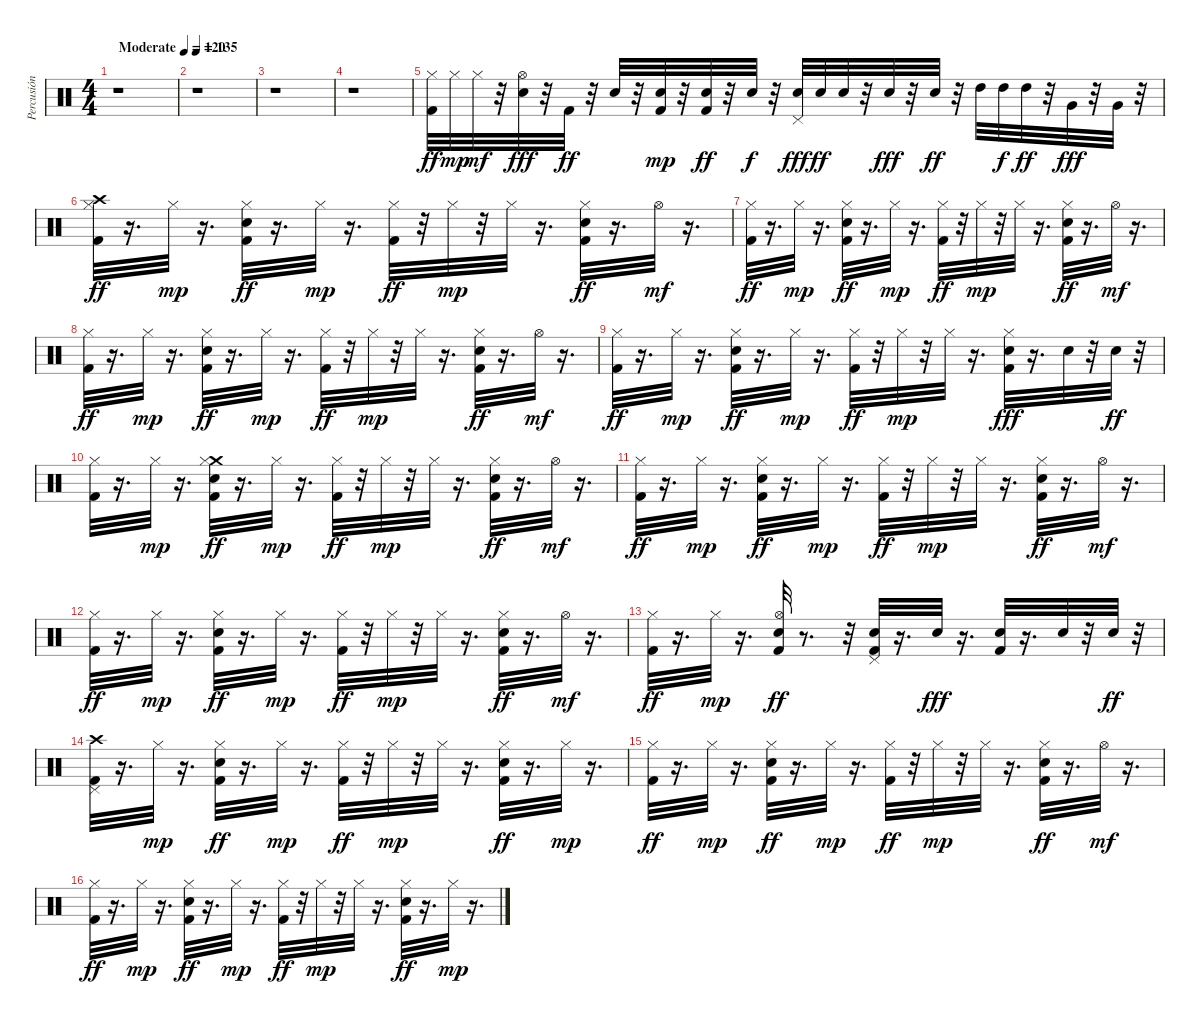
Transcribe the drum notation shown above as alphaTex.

\track ("Percusión" "Percusión") {instrument percussion}
\staff {score}
\articulation defaults
\ts (4 4)
\tempo (120 "Moderate")
\clef neutral
\ks c
r.1{dy ff} |
\tempo 135
r.1 |
r.1 |
r.1 |
("Hi-Hat (closed)" "Kick (hit) 2").32 "Hi-Hat (closed)".32{dy mp} "Hi-Hat (closed)".32{dy mf} r.32 ("Hi-Hat (open)" "Electric Snare (hit)").32{dy fff} r.32 "Kick (hit) 2".32{dy ff} r.32 "Electric Snare (hit)".32 r.32 ("Kick (hit) 2" "Electric Snare (hit)").32{dy mp} r.32 ("Kick (hit) 2" "Electric Snare (hit)").32{dy ff} r.32 "Electric Snare (hit)".32{dy f} r.32 ("Pedal Hi-Hat (hit)" "Electric Snare (hit)").32{dy fff} "Electric Snare (hit)".32{dy ff} "Electric Snare (hit)".32 r.32 "Electric Snare (hit)".32{dy fff} r.32 "Electric Snare (hit)".32{dy ff} r.32 "High Tom (hit)".32 "High Tom (hit)".32{dy f} "High Tom (hit)".32{dy ff} r.32 "Very Low Tom (hit)".32{dy fff} r.32 "Very Low Tom (hit)".32 r.32 |
("Crash high (hit)" "Hi-Hat (closed)" "Kick (hit) 2").32{dy ff} r.16{d} "Hi-Hat (closed)".32{dy mp} r.16{d} ("Hi-Hat (closed)" "Electric Snare (hit)" "Kick (hit) 2").32{dy ff} r.16{d} "Hi-Hat (closed)".32{dy mp} r.16{d} ("Hi-Hat (closed)" "Kick (hit) 2").32{dy ff} r.32 "Hi-Hat (closed)".32{dy mp} r.32 "Hi-Hat (closed)".32 r.16{d} ("Hi-Hat (closed)" "Electric Snare (hit)" "Kick (hit) 2").32{dy ff} r.16{d} "Hi-Hat (open)".32{dy mf} r.16{d} |
("Hi-Hat (closed)" "Kick (hit) 2").32{dy ff} r.16{d} "Hi-Hat (closed)".32{dy mp} r.16{d} ("Hi-Hat (closed)" "Electric Snare (hit)" "Kick (hit) 2").32{dy ff} r.16{d} "Hi-Hat (closed)".32{dy mp} r.16{d} ("Hi-Hat (closed)" "Kick (hit) 2").32{dy ff} r.32 "Hi-Hat (closed)".32{dy mp} r.32 "Hi-Hat (closed)".32 r.16{d} ("Hi-Hat (closed)" "Electric Snare (hit)" "Kick (hit) 2").32{dy ff} r.16{d} "Hi-Hat (open)".32{dy mf} r.16{d} |
("Hi-Hat (closed)" "Kick (hit) 2").32{dy ff} r.16{d} "Hi-Hat (closed)".32{dy mp} r.16{d} ("Hi-Hat (closed)" "Electric Snare (hit)" "Kick (hit) 2").32{dy ff} r.16{d} "Hi-Hat (closed)".32{dy mp} r.16{d} ("Hi-Hat (closed)" "Kick (hit) 2").32{dy ff} r.32 "Hi-Hat (closed)".32{dy mp} r.32 "Hi-Hat (closed)".32 r.16{d} ("Hi-Hat (closed)" "Electric Snare (hit)" "Kick (hit) 2").32{dy ff} r.16{d} "Hi-Hat (open)".32{dy mf} r.16{d} |
("Hi-Hat (closed)" "Kick (hit) 2").32{dy ff} r.16{d} "Hi-Hat (closed)".32{dy mp} r.16{d} ("Hi-Hat (closed)" "Electric Snare (hit)" "Kick (hit) 2").32{dy ff} r.16{d} "Hi-Hat (closed)".32{dy mp} r.16{d} ("Hi-Hat (closed)" "Kick (hit) 2").32{dy ff} r.32 "Hi-Hat (closed)".32{dy mp} r.32 "Hi-Hat (closed)".32 r.16{d} ("Hi-Hat (closed)" "Electric Snare (hit)" "Kick (hit) 2").32{dy fff} r.16{d} "Electric Snare (hit)".32 r.32 "Electric Snare (hit)".32{dy ff} r.32 |
("Hi-Hat (closed)" "Kick (hit) 2").32 r.16{d} "Hi-Hat (closed)".32{dy mp} r.16{d} ("Crash medium (hit)" "Hi-Hat (closed)" "Electric Snare (hit)" "Kick (hit) 2").32{dy ff} r.16{d} "Hi-Hat (closed)".32{dy mp} r.16{d} ("Hi-Hat (closed)" "Kick (hit) 2").32{dy ff} r.32 "Hi-Hat (closed)".32{dy mp} r.32 "Hi-Hat (closed)".32 r.16{d} ("Hi-Hat (closed)" "Electric Snare (hit)" "Kick (hit) 2").32{dy ff} r.16{d} "Hi-Hat (open)".32{dy mf} r.16{d} |
("Hi-Hat (closed)" "Kick (hit) 2").32{dy ff} r.16{d} "Hi-Hat (closed)".32{dy mp} r.16{d} ("Hi-Hat (closed)" "Electric Snare (hit)" "Kick (hit) 2").32{dy ff} r.16{d} "Hi-Hat (closed)".32{dy mp} r.16{d} ("Hi-Hat (closed)" "Kick (hit) 2").32{dy ff} r.32 "Hi-Hat (closed)".32{dy mp} r.32 "Hi-Hat (closed)".32 r.16{d} ("Hi-Hat (closed)" "Electric Snare (hit)" "Kick (hit) 2").32{dy ff} r.16{d} "Hi-Hat (open)".32{dy mf} r.16{d} |
("Hi-Hat (closed)" "Kick (hit) 2").32{dy ff} r.16{d} "Hi-Hat (closed)".32{dy mp} r.16{d} ("Hi-Hat (closed)" "Electric Snare (hit)" "Kick (hit) 2").32{dy ff} r.16{d} "Hi-Hat (closed)".32{dy mp} r.16{d} ("Hi-Hat (closed)" "Kick (hit) 2").32{dy ff} r.32 "Hi-Hat (closed)".32{dy mp} r.32 "Hi-Hat (closed)".32 r.16{d} ("Hi-Hat (closed)" "Electric Snare (hit)" "Kick (hit) 2").32{dy ff} r.16{d} "Hi-Hat (open)".32{dy mf} r.16{d} |
("Hi-Hat (closed)" "Kick (hit) 2").32{dy ff} r.16{d} "Hi-Hat (closed)".32{dy mp} r.16{d} ("Hi-Hat (open)" "Electric Snare (hit)" "Kick (hit) 2").32{dy ff} r.8{d} r.32 ("Pedal Hi-Hat (hit)" "Electric Snare (hit)" "Kick (hit) 2").32 r.16{d} "Electric Snare (hit)".32{dy fff} r.16{d} ("Electric Snare (hit)" "Kick (hit) 2").32 r.16{d} "Electric Snare (hit)".32 r.32 "Electric Snare (hit)".32{dy ff} r.32 |
("Crash high (hit)" "Pedal Hi-Hat (hit)" "Kick (hit) 2").32 r.16{d} "Hi-Hat (closed)".32{dy mp} r.16{d} ("Hi-Hat (closed)" "Electric Snare (hit)" "Kick (hit) 2").32{dy ff} r.16{d} "Hi-Hat (closed)".32{dy mp} r.16{d} ("Hi-Hat (closed)" "Kick (hit) 2").32{dy ff} r.32 "Hi-Hat (closed)".32{dy mp} r.32 "Hi-Hat (closed)".32 r.16{d} ("Hi-Hat (closed)" "Electric Snare (hit)" "Kick (hit) 2").32{dy ff} r.16{d} "Hi-Hat (closed)".32{dy mp} r.16{d} |
("Hi-Hat (closed)" "Kick (hit) 2").32{dy ff} r.16{d} "Hi-Hat (closed)".32{dy mp} r.16{d} ("Hi-Hat (closed)" "Electric Snare (hit)" "Kick (hit) 2").32{dy ff} r.16{d} "Hi-Hat (closed)".32{dy mp} r.16{d} ("Hi-Hat (closed)" "Kick (hit) 2").32{dy ff} r.32 "Hi-Hat (closed)".32{dy mp} r.32 "Hi-Hat (closed)".32 r.16{d} ("Hi-Hat (closed)" "Electric Snare (hit)" "Kick (hit) 2").32{dy ff} r.16{d} "Hi-Hat (open)".32{dy mf} r.16{d} |
("Hi-Hat (closed)" "Kick (hit) 2").32{dy ff} r.16{d} "Hi-Hat (closed)".32{dy mp} r.16{d} ("Hi-Hat (closed)" "Electric Snare (hit)" "Kick (hit) 2").32{dy ff} r.16{d} "Hi-Hat (closed)".32{dy mp} r.16{d} ("Hi-Hat (closed)" "Kick (hit) 2").32{dy ff} r.32 "Hi-Hat (closed)".32{dy mp} r.32 "Hi-Hat (closed)".32 r.16{d} ("Hi-Hat (closed)" "Electric Snare (hit)" "Kick (hit) 2").32{dy ff} r.16{d} "Hi-Hat (closed)".32{dy mp} r.16{d}
